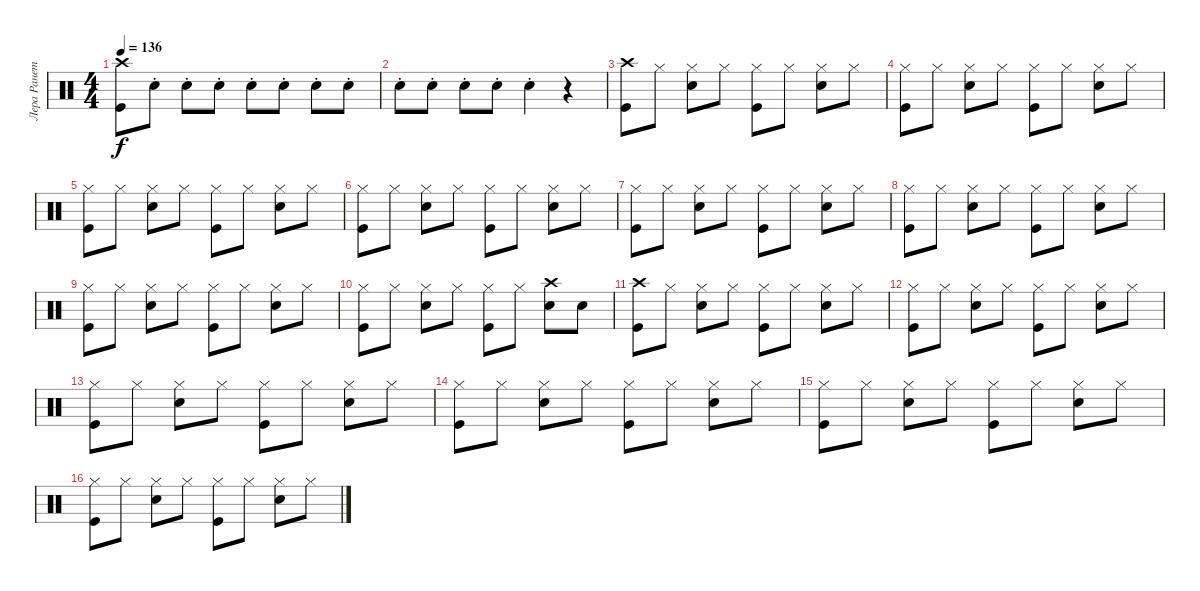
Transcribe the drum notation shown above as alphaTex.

\track ("Лера Ранетка" "Лера Ранет") {instrument percussion}
\staff {score}
\articulation defaults
\ts (4 4)
\tempo 136
\clef neutral
\ks c
("Crash high (hit)" "Kick (hit)").8{dy f volume 13} "Electric Snare (hit)"{st}.8{volume 5} "Electric Snare (hit)"{st}.8{volume 13} "Electric Snare (hit)"{st}.8 "Electric Snare (hit)"{st}.8 "Electric Snare (hit)"{st}.8 "Electric Snare (hit)"{st}.8 "Electric Snare (hit)"{st}.8 |
"Electric Snare (hit)"{st}.8 "Electric Snare (hit)"{st}.8 "Electric Snare (hit)"{st}.8 "Electric Snare (hit)"{st}.8 "Electric Snare (hit)"{st}.4 r.4 |
("Crash high (hit)" "Kick (hit)").8{volume 16} "Hi-Hat (closed)".8 ("Hi-Hat (closed)" "Electric Snare (hit)").8 "Hi-Hat (closed)".8 ("Hi-Hat (closed)" "Kick (hit)").8 "Hi-Hat (closed)".8 ("Hi-Hat (closed)" "Electric Snare (hit)").8 "Hi-Hat (closed)".8 |
("Hi-Hat (closed)" "Kick (hit)").8 "Hi-Hat (closed)".8 ("Hi-Hat (closed)" "Electric Snare (hit)").8 "Hi-Hat (closed)".8 ("Hi-Hat (closed)" "Kick (hit)").8 "Hi-Hat (closed)".8 ("Hi-Hat (closed)" "Electric Snare (hit)").8 "Hi-Hat (closed)".8 |
("Hi-Hat (closed)" "Kick (hit)").8 "Hi-Hat (closed)".8 ("Hi-Hat (closed)" "Electric Snare (hit)").8 "Hi-Hat (closed)".8 ("Hi-Hat (closed)" "Kick (hit)").8 "Hi-Hat (closed)".8 ("Hi-Hat (closed)" "Electric Snare (hit)").8 "Hi-Hat (closed)".8 |
("Hi-Hat (closed)" "Kick (hit)").8 "Hi-Hat (closed)".8 ("Hi-Hat (closed)" "Electric Snare (hit)").8 "Hi-Hat (closed)".8 ("Hi-Hat (closed)" "Kick (hit)").8 "Hi-Hat (closed)".8 ("Hi-Hat (closed)" "Electric Snare (hit)").8 "Hi-Hat (closed)".8 |
("Hi-Hat (closed)" "Kick (hit)").8 "Hi-Hat (closed)".8 ("Hi-Hat (closed)" "Electric Snare (hit)").8 "Hi-Hat (closed)".8 ("Hi-Hat (closed)" "Kick (hit)").8 "Hi-Hat (closed)".8 ("Hi-Hat (closed)" "Electric Snare (hit)").8 "Hi-Hat (closed)".8 |
("Hi-Hat (closed)" "Kick (hit)").8 "Hi-Hat (closed)".8 ("Hi-Hat (closed)" "Electric Snare (hit)").8 "Hi-Hat (closed)".8 ("Hi-Hat (closed)" "Kick (hit)").8 "Hi-Hat (closed)".8 ("Hi-Hat (closed)" "Electric Snare (hit)").8 "Hi-Hat (closed)".8 |
("Hi-Hat (closed)" "Kick (hit)").8 "Hi-Hat (closed)".8 ("Hi-Hat (closed)" "Electric Snare (hit)").8 "Hi-Hat (closed)".8 ("Hi-Hat (closed)" "Kick (hit)").8 "Hi-Hat (closed)".8 ("Hi-Hat (closed)" "Electric Snare (hit)").8 "Hi-Hat (closed)".8 |
("Hi-Hat (closed)" "Kick (hit)").8 "Hi-Hat (closed)".8 ("Hi-Hat (closed)" "Electric Snare (hit)").8 "Hi-Hat (closed)".8 ("Hi-Hat (closed)" "Kick (hit)").8 "Hi-Hat (closed)".8 ("Crash high (hit)" "Electric Snare (hit)").8 "Electric Snare (hit)".8 |
("Crash high (hit)" "Kick (hit)").8 "Hi-Hat (closed)".8 ("Hi-Hat (closed)" "Electric Snare (hit)").8 "Hi-Hat (closed)".8 ("Hi-Hat (closed)" "Kick (hit)").8 "Hi-Hat (closed)".8 ("Hi-Hat (closed)" "Electric Snare (hit)").8 "Hi-Hat (closed)".8 |
("Hi-Hat (closed)" "Kick (hit)").8 "Hi-Hat (closed)".8 ("Hi-Hat (closed)" "Electric Snare (hit)").8 "Hi-Hat (closed)".8 ("Hi-Hat (closed)" "Kick (hit)").8 "Hi-Hat (closed)".8 ("Hi-Hat (closed)" "Electric Snare (hit)").8 "Hi-Hat (closed)".8 |
("Hi-Hat (closed)" "Kick (hit)").8 "Hi-Hat (closed)".8 ("Hi-Hat (closed)" "Electric Snare (hit)").8 "Hi-Hat (closed)".8 ("Hi-Hat (closed)" "Kick (hit)").8 "Hi-Hat (closed)".8 ("Hi-Hat (closed)" "Electric Snare (hit)").8 "Hi-Hat (closed)".8 |
("Hi-Hat (closed)" "Kick (hit)").8 "Hi-Hat (closed)".8 ("Hi-Hat (closed)" "Electric Snare (hit)").8 "Hi-Hat (closed)".8 ("Hi-Hat (closed)" "Kick (hit)").8 "Hi-Hat (closed)".8 ("Hi-Hat (closed)" "Electric Snare (hit)").8 "Hi-Hat (closed)".8 |
("Hi-Hat (closed)" "Kick (hit)").8 "Hi-Hat (closed)".8 ("Hi-Hat (closed)" "Electric Snare (hit)").8 "Hi-Hat (closed)".8 ("Hi-Hat (closed)" "Kick (hit)").8 "Hi-Hat (closed)".8 ("Hi-Hat (closed)" "Electric Snare (hit)").8 "Hi-Hat (closed)".8 |
("Hi-Hat (closed)" "Kick (hit)").8 "Hi-Hat (closed)".8 ("Hi-Hat (closed)" "Electric Snare (hit)").8 "Hi-Hat (closed)".8 ("Hi-Hat (closed)" "Kick (hit)").8 "Hi-Hat (closed)".8 ("Hi-Hat (closed)" "Electric Snare (hit)").8 "Hi-Hat (closed)".8
